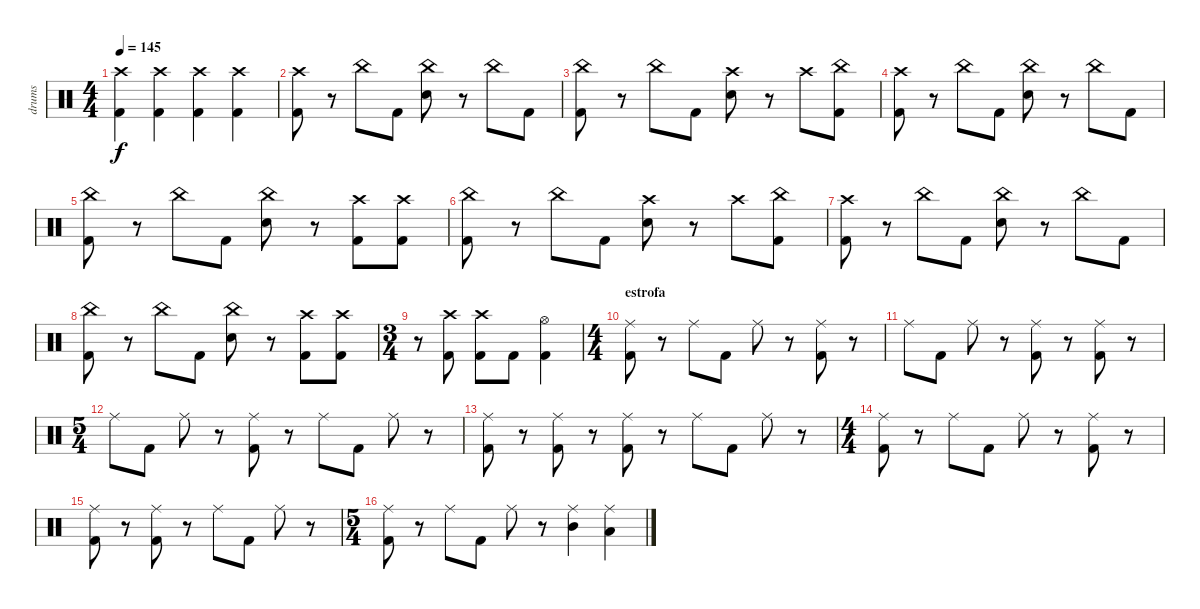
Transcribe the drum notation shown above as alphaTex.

\track ("drums" "drums") {instrument percussion}
\staff {score}
\articulation defaults
\ts (4 4)
\tempo 145
\clef neutral
\ks c
("Kick (hit) 2" "Crash high (hit)").4{dy f} ("Kick (hit) 2" "Crash high (hit)").4 ("Kick (hit) 2" "Crash high (hit)").4 ("Kick (hit) 2" "Crash high (hit)").4 |
("Kick (hit) 2" "Crash high (hit)").8 r.8 "China (hit)".8 "Kick (hit) 2".8 ("Snare (hit) 2" "China (hit)").8 r.8 "China (hit)".8 "Kick (hit) 2".8 |
("Kick (hit) 2" "China (hit)").8 r.8 "China (hit)".8 "Kick (hit) 2".8 ("Snare (hit) 2" "Crash high (hit)").8 r.8 "Crash high (hit)".8 ("Kick (hit) 2" "China (hit)").8 |
("Kick (hit) 2" "Crash high (hit)").8 r.8 "China (hit)".8 "Kick (hit) 2".8 ("Snare (hit) 2" "China (hit)").8 r.8 "China (hit)".8 "Kick (hit) 2".8 |
("Kick (hit) 2" "China (hit)").8 r.8 "China (hit)".8 "Kick (hit) 2".8 ("Snare (hit) 2" "China (hit)").8 r.8 ("Kick (hit) 2" "Crash high (hit)").8 ("Kick (hit) 2" "Crash high (hit)").8 |
("Kick (hit) 2" "China (hit)").8 r.8 "China (hit)".8 "Kick (hit) 2".8 ("Snare (hit) 2" "Crash high (hit)").8 r.8 "Crash high (hit)".8 ("Kick (hit) 2" "China (hit)").8 |
("Kick (hit) 2" "Crash high (hit)").8 r.8 "China (hit)".8 "Kick (hit) 2".8 ("Snare (hit) 2" "China (hit)").8 r.8 "China (hit)".8 "Kick (hit) 2".8 |
("Kick (hit) 2" "China (hit)").8 r.8 "China (hit)".8 "Kick (hit) 2".8 ("Snare (hit) 2" "China (hit)").8 r.8 ("Kick (hit) 2" "Crash high (hit)").8 ("Kick (hit) 2" "Crash high (hit)").8 |
\ts (3 4)
r.8 ("Kick (hit) 2" "Crash high (hit)").8 ("Kick (hit) 2" "Crash high (hit)").8 "Kick (hit) 2".8 ("Kick (hit) 2" "Hi-Hat (open)").4 |
\ts (4 4)
\section ("" "estrofa")
("Kick (hit) 2" "Ride (middle)").8 r.8 "Ride (middle)".8 "Kick (hit) 2".8 "Ride (middle)".8 r.8 ("Kick (hit) 2" "Ride (middle)").8 r.8 |
"Ride (middle)".8 "Kick (hit) 2".8 "Ride (middle)".8 r.8 ("Kick (hit) 2" "Ride (middle)").8 r.8 ("Kick (hit) 2" "Ride (middle)").8 r.8 |
\ts (5 4)
"Ride (middle)".8 "Kick (hit) 2".8 "Ride (middle)".8 r.8 ("Kick (hit) 2" "Ride (middle)").8 r.8 "Ride (middle)".8 "Kick (hit) 2".8 "Ride (middle)".8 r.8 |
("Kick (hit) 2" "Ride (middle)").8 r.8 ("Kick (hit) 2" "Ride (middle)").8 r.8 ("Kick (hit) 2" "Ride (middle)").8 r.8 "Ride (middle)".8 "Kick (hit) 2".8 "Ride (middle)".8 r.8 |
\ts (4 4)
("Kick (hit) 2" "Ride (middle)").8 r.8 "Ride (middle)".8 "Kick (hit) 2".8 "Ride (middle)".8 r.8 ("Kick (hit) 2" "Ride (middle)").8 r.8 |
("Kick (hit) 2" "Ride (middle)").8 r.8 ("Kick (hit) 2" "Ride (middle)").8 r.8 "Ride (middle)".8 "Kick (hit) 2".8 "Ride (middle)".8 r.8 |
\ts (5 4)
("Kick (hit) 2" "Ride (middle)").8 r.8 "Ride (middle)".8 "Kick (hit) 2".8 "Ride (middle)".8 r.8 ("Mid Tom (hit)" "Ride (middle)").4 ("Low Tom (hit)" "Ride (middle)").4
